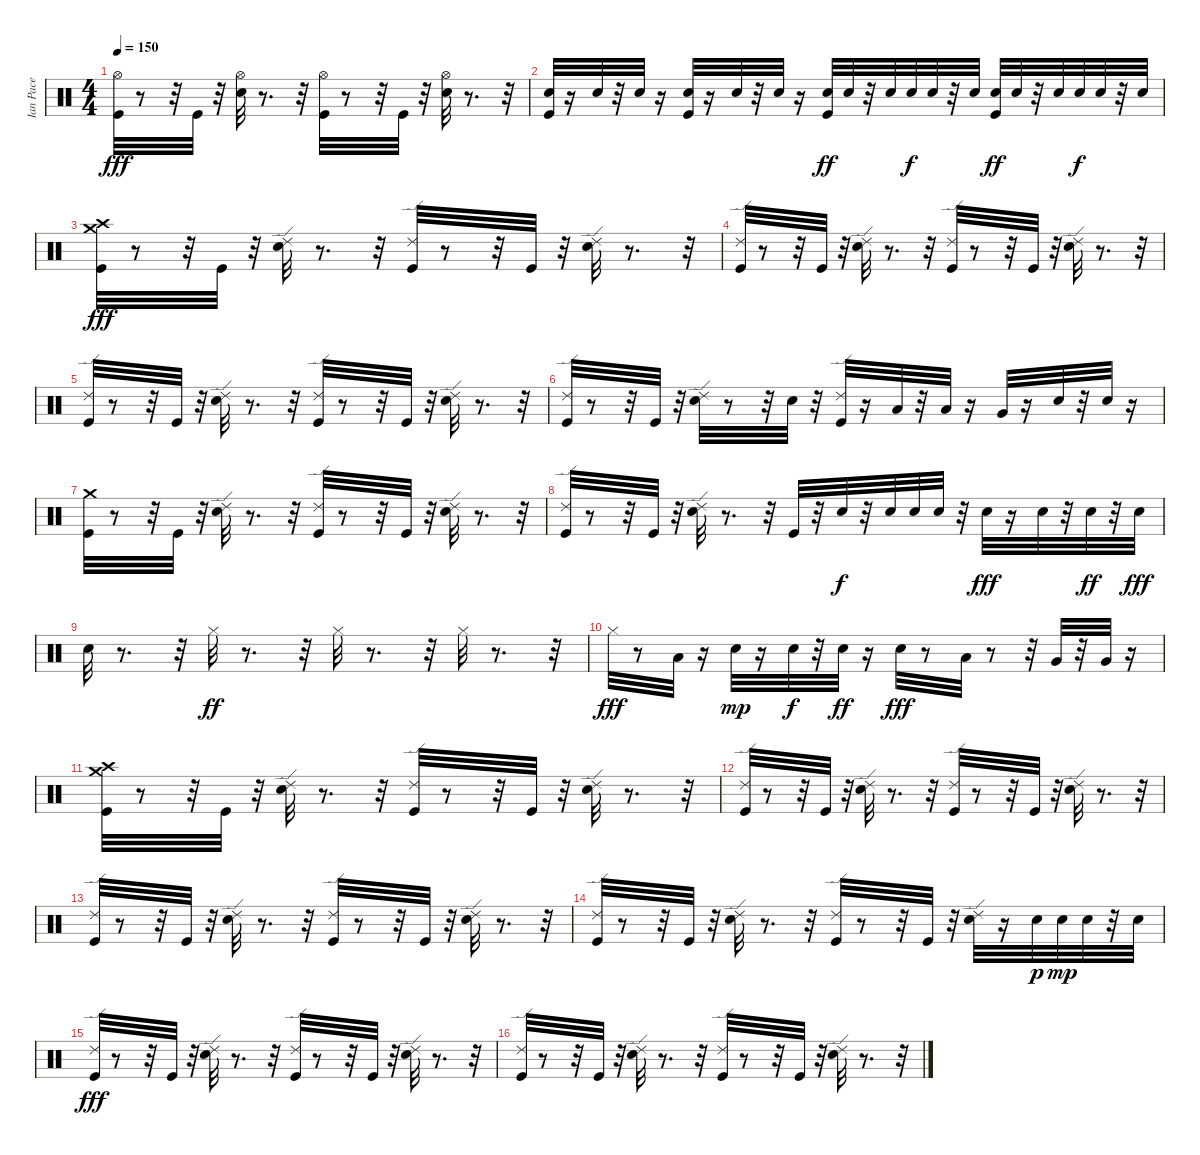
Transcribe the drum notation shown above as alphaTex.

\track ("Ian Pace" "Ian Pace") {instrument percussion}
\staff {score}
\articulation defaults
\ts (4 4)
\tempo 150
\clef neutral
\ks c
("Hi-Hat (open)" "Kick (hit)").32{dy fff} r.8 r.32 "Kick (hit)".32 r.32 ("Hi-Hat (open)" "Electric Snare (hit)").32 r.8{d} r.32 ("Hi-Hat (open)" "Kick (hit)").32 r.8 r.32 "Kick (hit)".32 r.32 ("Hi-Hat (open)" "Electric Snare (hit)").32 r.8{d} r.32 |
("Kick (hit)" "Electric Snare (hit)").32 r.16 "Electric Snare (hit)".32 r.32 "Electric Snare (hit)".32 r.16 ("Kick (hit)" "Electric Snare (hit)").32 r.16 "Electric Snare (hit)".32 r.32 "Electric Snare (hit)".32 r.16 ("Kick (hit)" "Electric Snare (hit)").32{dy ff} "Electric Snare (hit)".32 r.32 "Electric Snare (hit)".32 "Electric Snare (hit)".32{dy f} "Electric Snare (hit)".32 r.32 "Electric Snare (hit)".32 ("Kick (hit)" "Electric Snare (hit)").32{dy ff} "Electric Snare (hit)".32 r.32 "Electric Snare (hit)".32 "Electric Snare (hit)".32{dy f} "Electric Snare (hit)".32 r.32 "Electric Snare (hit)".32 |
("Crash medium (hit)" "Kick (hit)" "Crash high (hit)").32{dy fff} r.8 r.32 "Kick (hit)".32 r.32 ("Ride (edge) 2" "Electric Snare (hit)").32 r.8{d} r.32 ("Ride (edge) 2" "Kick (hit)").32 r.8 r.32 "Kick (hit)".32 r.32 ("Ride (edge) 2" "Electric Snare (hit)").32 r.8{d} r.32 |
("Kick (hit)" "Ride (edge) 2").32 r.8 r.32 "Kick (hit)".32 r.32 ("Ride (edge) 2" "Electric Snare (hit)").32 r.8{d} r.32 ("Ride (edge) 2" "Kick (hit)").32 r.8 r.32 "Kick (hit)".32 r.32 ("Ride (edge) 2" "Electric Snare (hit)").32 r.8{d} r.32 |
("Ride (edge) 2" "Kick (hit)").32 r.8 r.32 "Kick (hit)".32 r.32 ("Electric Snare (hit)" "Ride (edge) 2").32 r.8{d} r.32 ("Ride (edge) 2" "Kick (hit)").32 r.8 r.32 "Kick (hit)".32 r.32 ("Ride (edge) 2" "Electric Snare (hit)").32 r.8{d} r.32 |
("Ride (edge) 2" "Kick (hit)").32 r.8 r.32 "Kick (hit)".32 r.32 ("Ride (edge) 2" "Electric Snare (hit)").32 r.8 r.32 "Electric Snare (hit)".32 r.32 ("Kick (hit)" "Ride (edge) 2").32 r.16 "Low Tom (hit)".32 r.32 "Low Tom (hit)".32 r.16 "Very Low Tom (hit)".32 r.16 "Electric Snare (hit)".32 r.32 "Electric Snare (hit)".32 r.16 |
("Kick (hit)" "Crash medium (hit)").32 r.8 r.32 "Kick (hit)".32 r.32 ("Electric Snare (hit)" "Ride (edge) 2").32 r.8{d} r.32 ("Ride (edge) 2" "Kick (hit)").32 r.8 r.32 "Kick (hit)".32 r.32 ("Ride (edge) 2" "Electric Snare (hit)").32 r.8{d} r.32 |
("Ride (edge) 2" "Kick (hit)").32 r.8 r.32 "Kick (hit)".32 r.32 ("Ride (edge) 2" "Electric Snare (hit)").32 r.8{d} r.32 "Kick (hit)".32 r.32 "Electric Snare (hit)".32{dy f} r.32 "Electric Snare (hit)".32 "Electric Snare (hit)".32 "Electric Snare (hit)".32 r.32 "Electric Snare (hit)".32{dy fff} r.16 "Electric Snare (hit)".32 r.32 "Electric Snare (hit)".32{dy ff} r.32 "Electric Snare (hit)".32{dy fff} |
"Electric Snare (hit)".32 r.8{d} r.32 "Hi-Hat (closed)".32{dy ff} r.8{d} r.32 "Hi-Hat (closed)".32 r.8{d} r.32 "Hi-Hat (closed)".32 r.8{d} r.32 |
"Hi-Hat (closed)".32{dy fff} r.8 "Low Tom (hit)".32 r.16 "Electric Snare (hit)".32{dy mp} r.16 "Electric Snare (hit)".32{dy f} r.32 "Electric Snare (hit)".32{dy ff} r.16 "Electric Snare (hit)".32{dy fff} r.8 "Low Tom (hit)".32 r.8 r.32 "Very Low Tom (hit)".32 r.32 "Very Low Tom (hit)".32 r.16 |
("Crash medium (hit)" "Crash high (hit)" "Kick (hit)").32 r.8 r.32 "Kick (hit)".32 r.32 ("Ride (edge) 2" "Electric Snare (hit)").32 r.8{d} r.32 ("Kick (hit)" "Ride (edge) 2").32 r.8 r.32 "Kick (hit)".32 r.32 ("Ride (edge) 2" "Electric Snare (hit)").32 r.8{d} r.32 |
("Ride (edge) 2" "Kick (hit)").32 r.8 r.32 "Kick (hit)".32 r.32 ("Ride (edge) 2" "Electric Snare (hit)").32 r.8{d} r.32 ("Ride (edge) 2" "Kick (hit)").32 r.8 r.32 "Kick (hit)".32 r.32 ("Electric Snare (hit)" "Ride (edge) 2").32 r.8{d} r.32 |
("Ride (edge) 2" "Kick (hit)").32 r.8 r.32 "Kick (hit)".32 r.32 ("Ride (edge) 2" "Electric Snare (hit)").32 r.8{d} r.32 ("Ride (edge) 2" "Kick (hit)").32 r.8 r.32 "Kick (hit)".32 r.32 ("Ride (edge) 2" "Electric Snare (hit)").32 r.8{d} r.32 |
("Kick (hit)" "Ride (edge) 2").32 r.8 r.32 "Kick (hit)".32 r.32 ("Ride (edge) 2" "Electric Snare (hit)").32 r.8{d} r.32 ("Ride (edge) 2" "Kick (hit)").32 r.8 r.32 "Kick (hit)".32 r.32 ("Ride (edge) 2" "Electric Snare (hit)").32 r.16 "Electric Snare (hit)".32{dy p} "Electric Snare (hit)".32{dy mp} "Electric Snare (hit)".32 r.32 "Electric Snare (hit)".32 |
("Ride (edge) 2" "Kick (hit)").32{dy fff} r.8 r.32 "Kick (hit)".32 r.32 ("Ride (edge) 2" "Electric Snare (hit)").32 r.8{d} r.32 ("Kick (hit)" "Ride (edge) 2").32 r.8 r.32 "Kick (hit)".32 r.32 ("Ride (edge) 2" "Electric Snare (hit)").32 r.8{d} r.32 |
("Ride (edge) 2" "Kick (hit)").32 r.8 r.32 "Kick (hit)".32 r.32 ("Ride (edge) 2" "Electric Snare (hit)").32 r.8{d} r.32 ("Ride (edge) 2" "Kick (hit)").32 r.8 r.32 "Kick (hit)".32 r.32 ("Electric Snare (hit)" "Ride (edge) 2").32 r.8{d} r.32
